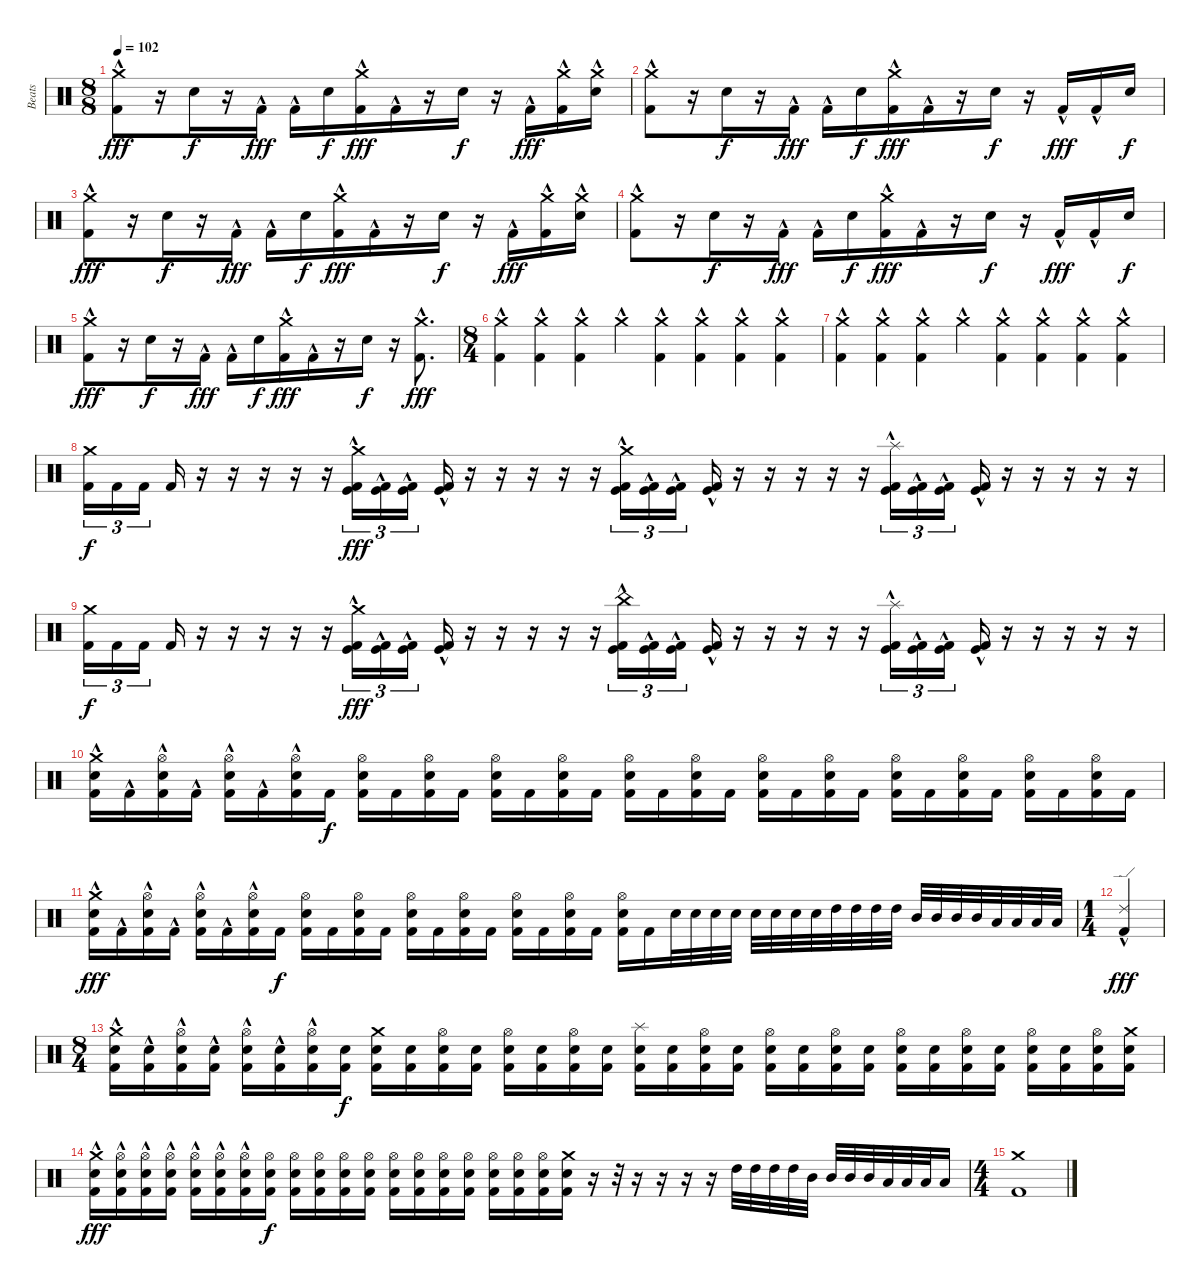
\track ("Beats" "Beats") {instrument percussion}
\staff {score}
\articulation defaults
\ts (8 8)
\tempo 102
\clef neutral
\ks c
("Crash medium (hit)" "Kick (hit) 2"{hac}).8{dy fff} r.16 "Snare (hit) 2".16{dy f} r.16 "Kick (hit) 2"{hac}.16{dy fff} "Kick (hit) 2"{hac}.16 "Snare (hit) 2".16{dy f} ("Crash medium (hit)"{hac} "Kick (hit) 2"{hac}).16{dy fff} "Kick (hit) 2"{hac}.16 r.16 "Snare (hit) 2".16{dy f} r.16 "Kick (hit) 2"{hac}.16{dy fff} ("Crash medium (hit)"{hac} "Kick (hit) 2"{hac}).16 ("Crash medium (hit)"{hac} "Snare (hit) 2"{hac}).16 |
("Crash medium (hit)" "Kick (hit) 2"{hac}).8 r.16 "Snare (hit) 2".16{dy f} r.16 "Kick (hit) 2"{hac}.16{dy fff} "Kick (hit) 2"{hac}.16 "Snare (hit) 2".16{dy f} ("Crash medium (hit)"{hac} "Kick (hit) 2"{hac}).16{dy fff} "Kick (hit) 2"{hac}.16 r.16 "Snare (hit) 2".16{dy f} r.16 "Kick (hit) 2"{hac}.16{dy fff} "Kick (hit) 2"{hac}.16 "Snare (hit) 2".16{dy f} |
("Crash medium (hit)" "Kick (hit) 2"{hac}).8{dy fff} r.16 "Snare (hit) 2".16{dy f} r.16 "Kick (hit) 2"{hac}.16{dy fff} "Kick (hit) 2"{hac}.16 "Snare (hit) 2".16{dy f} ("Crash medium (hit)"{hac} "Kick (hit) 2"{hac}).16{dy fff} "Kick (hit) 2"{hac}.16 r.16 "Snare (hit) 2".16{dy f} r.16 "Kick (hit) 2"{hac}.16{dy fff} ("Crash medium (hit)"{hac} "Kick (hit) 2"{hac}).16 ("Crash medium (hit)"{hac} "Snare (hit) 2"{hac}).16 |
("Crash medium (hit)" "Kick (hit) 2"{hac}).8 r.16 "Snare (hit) 2".16{dy f} r.16 "Kick (hit) 2"{hac}.16{dy fff} "Kick (hit) 2"{hac}.16 "Snare (hit) 2".16{dy f} ("Crash medium (hit)"{hac} "Kick (hit) 2"{hac}).16{dy fff} "Kick (hit) 2"{hac}.16 r.16 "Snare (hit) 2".16{dy f} r.16 "Kick (hit) 2"{hac}.16{dy fff} "Kick (hit) 2"{hac}.16 "Snare (hit) 2".16{dy f} |
("Crash medium (hit)" "Kick (hit) 2"{hac}).8{dy fff} r.16 "Snare (hit) 2".16{dy f} r.16 "Kick (hit) 2"{hac}.16{dy fff} "Kick (hit) 2"{hac}.16 "Snare (hit) 2".16{dy f} ("Crash medium (hit)"{hac} "Kick (hit) 2"{hac}).16{dy fff} "Kick (hit) 2"{hac}.16 r.16 "Snare (hit) 2".16{dy f} r.16 ("Crash medium (hit)"{hac} "Kick (hit) 2"{hac}).8{d dy fff} |
\ts (8 4)
("Crash medium (hit)"{hac} "Kick (hit) 2"{hac}).4 ("Crash medium (hit)"{hac} "Kick (hit) 2"{hac}).4 ("Crash medium (hit)"{hac} "Kick (hit) 2"{hac}).4 "Crash medium (hit)"{hac}.4 ("Crash medium (hit)"{hac} "Kick (hit) 2"{hac}).4 ("Crash medium (hit)"{hac} "Kick (hit) 2"{hac}).4 ("Crash medium (hit)"{hac} "Kick (hit) 2"{hac}).4 ("Crash medium (hit)"{hac} "Kick (hit) 2"{hac}).4 |
("Crash medium (hit)"{hac} "Kick (hit) 2"{hac}).4 ("Crash medium (hit)"{hac} "Kick (hit) 2"{hac}).4 ("Crash medium (hit)"{hac} "Kick (hit) 2"{hac}).4 "Crash medium (hit)"{hac}.4 ("Crash medium (hit)"{hac} "Kick (hit) 2"{hac}).4 ("Crash medium (hit)"{hac} "Kick (hit) 2"{hac}).4 ("Crash medium (hit)"{hac} "Kick (hit) 2"{hac}).4 ("Crash medium (hit)"{hac} "Kick (hit) 2"{hac}).4 |
("Crash medium (hit)" "Kick (hit) 2").16{tu (3 2) dy f} "Kick (hit) 2".16{tu (3 2)} "Kick (hit) 2".16{tu (3 2) beam splitsecondary} "Kick (hit) 2".16 r.16 r.16 r.16 r.16 r.16 ("Crash medium (hit)" "Kick (hit)"{hac} "Kick (hit) 2"{hac}).16{tu (3 2) dy fff} ("Kick (hit)"{hac} "Kick (hit) 2"{hac}).16{tu (3 2)} ("Kick (hit)"{hac} "Kick (hit) 2"{hac}).16{tu (3 2) beam splitsecondary} ("Kick (hit)"{hac} "Kick (hit) 2"{hac}).16 r.16 r.16 r.16 r.16 r.16 ("Crash medium (hit)" "Kick (hit)"{hac} "Kick (hit) 2"{hac}).16{tu (3 2)} ("Kick (hit)"{hac} "Kick (hit) 2"{hac}).16{tu (3 2)} ("Kick (hit)"{hac} "Kick (hit) 2"{hac}).16{tu (3 2) beam splitsecondary} ("Kick (hit)"{hac} "Kick (hit) 2"{hac}).16 r.16 r.16 r.16 r.16 r.16 ("Splash (hit)" "Kick (hit)"{hac} "Kick (hit) 2"{hac}).16{tu (3 2)} ("Kick (hit)"{hac} "Kick (hit) 2"{hac}).16{tu (3 2)} ("Kick (hit)"{hac} "Kick (hit) 2"{hac}).16{tu (3 2) beam splitsecondary} ("Kick (hit)"{hac} "Kick (hit) 2"{hac}).16 r.16 r.16 r.16 r.16 r.16 |
("Crash medium (hit)" "Kick (hit) 2").16{tu (3 2) dy f} "Kick (hit) 2".16{tu (3 2)} "Kick (hit) 2".16{tu (3 2) beam splitsecondary} "Kick (hit) 2".16 r.16 r.16 r.16 r.16 r.16 ("Crash medium (hit)" "Kick (hit)"{hac} "Kick (hit) 2"{hac}).16{tu (3 2) dy fff} ("Kick (hit)"{hac} "Kick (hit) 2"{hac}).16{tu (3 2)} ("Kick (hit)"{hac} "Kick (hit) 2"{hac}).16{tu (3 2) beam splitsecondary} ("Kick (hit)"{hac} "Kick (hit) 2"{hac}).16 r.16 r.16 r.16 r.16 r.16 ("China (hit)" "Kick (hit)"{hac} "Kick (hit) 2"{hac}).16{tu (3 2)} ("Kick (hit)"{hac} "Kick (hit) 2"{hac}).16{tu (3 2)} ("Kick (hit)"{hac} "Kick (hit) 2"{hac}).16{tu (3 2) beam splitsecondary} ("Kick (hit)"{hac} "Kick (hit) 2"{hac}).16 r.16 r.16 r.16 r.16 r.16 ("Splash (hit)" "Kick (hit)"{hac} "Kick (hit) 2"{hac}).16{tu (3 2)} ("Kick (hit)"{hac} "Kick (hit) 2"{hac}).16{tu (3 2)} ("Kick (hit)"{hac} "Kick (hit) 2"{hac}).16{tu (3 2) beam splitsecondary} ("Kick (hit)"{hac} "Kick (hit) 2"{hac}).16 r.16 r.16 r.16 r.16 r.16 |
("Crash medium (hit)" "Snare (hit) 2" "Kick (hit) 2"{hac}).16 "Kick (hit) 2"{hac}.16 ("Hi-Hat (open)" "Snare (hit) 2" "Kick (hit) 2"{hac}).16 "Kick (hit) 2"{hac}.16 ("Hi-Hat (open)" "Snare (hit) 2" "Kick (hit) 2"{hac}).16 "Kick (hit) 2"{hac}.16 ("Hi-Hat (open)" "Snare (hit) 2" "Kick (hit) 2"{hac}).16 "Kick (hit) 2".16{dy f} ("Hi-Hat (open)" "Snare (hit) 2" "Kick (hit) 2").16 "Kick (hit) 2".16 ("Hi-Hat (open)" "Snare (hit) 2" "Kick (hit) 2").16 "Kick (hit) 2".16 ("Hi-Hat (open)" "Snare (hit) 2" "Kick (hit) 2").16 "Kick (hit) 2".16 ("Hi-Hat (open)" "Snare (hit) 2" "Kick (hit) 2").16 "Kick (hit) 2".16 ("Hi-Hat (open)" "Snare (hit) 2" "Kick (hit) 2").16 "Kick (hit) 2".16 ("Hi-Hat (open)" "Snare (hit) 2" "Kick (hit) 2").16 "Kick (hit) 2".16 ("Hi-Hat (open)" "Snare (hit) 2" "Kick (hit) 2").16 "Kick (hit) 2".16 ("Hi-Hat (open)" "Snare (hit) 2" "Kick (hit) 2").16 "Kick (hit) 2".16 ("Hi-Hat (open)" "Snare (hit) 2" "Kick (hit) 2").16 "Kick (hit) 2".16 ("Hi-Hat (open)" "Snare (hit) 2" "Kick (hit) 2").16 "Kick (hit) 2".16 ("Hi-Hat (open)" "Snare (hit) 2" "Kick (hit) 2").16 "Kick (hit) 2".16 ("Hi-Hat (open)" "Snare (hit) 2" "Kick (hit) 2").16 "Kick (hit) 2".16 |
("Crash medium (hit)" "Snare (hit) 2" "Kick (hit) 2"{hac}).16{dy fff} "Kick (hit) 2"{hac}.16 ("Hi-Hat (open)" "Snare (hit) 2" "Kick (hit) 2"{hac}).16 "Kick (hit) 2"{hac}.16 ("Hi-Hat (open)" "Snare (hit) 2" "Kick (hit) 2"{hac}).16 "Kick (hit) 2"{hac}.16 ("Hi-Hat (open)" "Snare (hit) 2" "Kick (hit) 2"{hac}).16 "Kick (hit) 2".16{dy f} ("Hi-Hat (open)" "Snare (hit) 2" "Kick (hit) 2").16 "Kick (hit) 2".16 ("Hi-Hat (open)" "Snare (hit) 2" "Kick (hit) 2").16 "Kick (hit) 2".16 ("Hi-Hat (open)" "Snare (hit) 2" "Kick (hit) 2").16 "Kick (hit) 2".16 ("Hi-Hat (open)" "Snare (hit) 2" "Kick (hit) 2").16 "Kick (hit) 2".16 ("Hi-Hat (open)" "Snare (hit) 2" "Kick (hit) 2").16 "Kick (hit) 2".16 ("Hi-Hat (open)" "Snare (hit) 2" "Kick (hit) 2").16 "Kick (hit) 2".16 ("Hi-Hat (open)" "Snare (hit) 2" "Kick (hit) 2").16 "Kick (hit) 2".16 "Snare (hit) 2".32 "Snare (hit) 2".32 "Snare (hit) 2".32 "Snare (hit) 2".32 "Snare (hit) 2".32 "Snare (hit) 2".32 "Snare (hit) 2".32 "Snare (hit) 2".32 "High Tom (hit)".32 "High Tom (hit)".32 "High Tom (hit)".32 "High Tom (hit)".32 "Mid Tom (hit)".32 "Mid Tom (hit)".32 "Mid Tom (hit)".32 "Mid Tom (hit)".32 "Low Tom (hit)".32 "Low Tom (hit)".32 "Low Tom (hit)".32 "Low Tom (hit)".32 |
\ts (1 4)
("Ride (edge) 2"{hac} "Kick (hit) 2"{hac}).4{dy fff} |
\ts (8 4)
("Crash medium (hit)" "Snare (hit) 2" "Kick (hit) 2"{hac}).16 ("Snare (hit) 2" "Kick (hit) 2"{hac}).16 ("Hi-Hat (open)" "Snare (hit) 2" "Kick (hit) 2"{hac}).16 ("Snare (hit) 2" "Kick (hit) 2"{hac}).16 ("Hi-Hat (open)" "Snare (hit) 2" "Kick (hit) 2"{hac}).16 ("Snare (hit) 2" "Kick (hit) 2"{hac}).16 ("Hi-Hat (open)" "Snare (hit) 2" "Kick (hit) 2"{hac}).16 ("Snare (hit) 2" "Kick (hit) 2").16{dy f} ("Crash medium (hit)" "Snare (hit) 2" "Kick (hit) 2").16 ("Snare (hit) 2" "Kick (hit) 2").16 ("Hi-Hat (open)" "Snare (hit) 2" "Kick (hit) 2").16 ("Snare (hit) 2" "Kick (hit) 2").16 ("Hi-Hat (open)" "Snare (hit) 2" "Kick (hit) 2").16 ("Snare (hit) 2" "Kick (hit) 2").16 ("Hi-Hat (open)" "Snare (hit) 2" "Kick (hit) 2").16 ("Snare (hit) 2" "Kick (hit) 2").16 ("Splash (hit)" "Snare (hit) 2" "Kick (hit) 2").16 ("Snare (hit) 2" "Kick (hit) 2").16 ("Hi-Hat (open)" "Snare (hit) 2" "Kick (hit) 2").16 ("Snare (hit) 2" "Kick (hit) 2").16 ("Hi-Hat (open)" "Snare (hit) 2" "Kick (hit) 2").16 ("Snare (hit) 2" "Kick (hit) 2").16 ("Hi-Hat (open)" "Snare (hit) 2" "Kick (hit) 2").16 ("Snare (hit) 2" "Kick (hit) 2").16 ("Hi-Hat (open)" "Snare (hit) 2" "Kick (hit) 2").16 ("Snare (hit) 2" "Kick (hit) 2").16 ("Hi-Hat (open)" "Snare (hit) 2" "Kick (hit) 2").16 ("Snare (hit) 2" "Kick (hit) 2").16 ("Hi-Hat (open)" "Snare (hit) 2" "Kick (hit) 2").16 ("Snare (hit) 2" "Kick (hit) 2").16 ("Hi-Hat (open)" "Snare (hit) 2" "Kick (hit) 2").16 ("Crash medium (hit)" "Snare (hit) 2" "Kick (hit) 2").16 |
("Crash medium (hit)" "Snare (hit) 2" "Kick (hit) 2"{hac}).16{dy fff} ("Hi-Hat (open)" "Snare (hit) 2" "Kick (hit) 2"{hac}).16 ("Hi-Hat (open)" "Snare (hit) 2" "Kick (hit) 2"{hac}).16 ("Hi-Hat (open)" "Snare (hit) 2" "Kick (hit) 2"{hac}).16 ("Hi-Hat (open)" "Snare (hit) 2" "Kick (hit) 2"{hac}).16 ("Hi-Hat (open)" "Snare (hit) 2" "Kick (hit) 2"{hac}).16 ("Hi-Hat (open)" "Snare (hit) 2" "Kick (hit) 2"{hac}).16 ("Hi-Hat (open)" "Snare (hit) 2" "Kick (hit) 2").16{dy f} ("Hi-Hat (open)" "Snare (hit) 2" "Kick (hit) 2").16 ("Hi-Hat (open)" "Snare (hit) 2" "Kick (hit) 2").16 ("Hi-Hat (open)" "Snare (hit) 2" "Kick (hit) 2").16 ("Hi-Hat (open)" "Snare (hit) 2" "Kick (hit) 2").16 ("Hi-Hat (open)" "Snare (hit) 2" "Kick (hit) 2").16 ("Hi-Hat (open)" "Snare (hit) 2" "Kick (hit) 2").16 ("Hi-Hat (open)" "Snare (hit) 2" "Kick (hit) 2").16 ("Hi-Hat (open)" "Snare (hit) 2" "Kick (hit) 2").16 ("Hi-Hat (open)" "Snare (hit) 2" "Kick (hit) 2").16 ("Hi-Hat (open)" "Snare (hit) 2" "Kick (hit) 2").16 ("Hi-Hat (open)" "Snare (hit) 2" "Kick (hit) 2").16 ("Crash medium (hit)" "Snare (hit) 2" "Kick (hit) 2").16 r.16 r.32 r.16 r.16 r.16 r.16 "High Tom (hit)".32 "High Tom (hit)".32 "High Tom (hit)".32 "High Tom (hit)".32 "Mid Tom (hit)".32 "Mid Tom (hit)".32 "Mid Tom (hit)".32 "Mid Tom (hit)".32 "Low Tom (hit)".32 "Low Tom (hit)".32 "Low Tom (hit)".32 "Low Tom (hit)".16 |
\ts (4 4)
("Crash medium (hit)" "Kick (hit) 2").1
